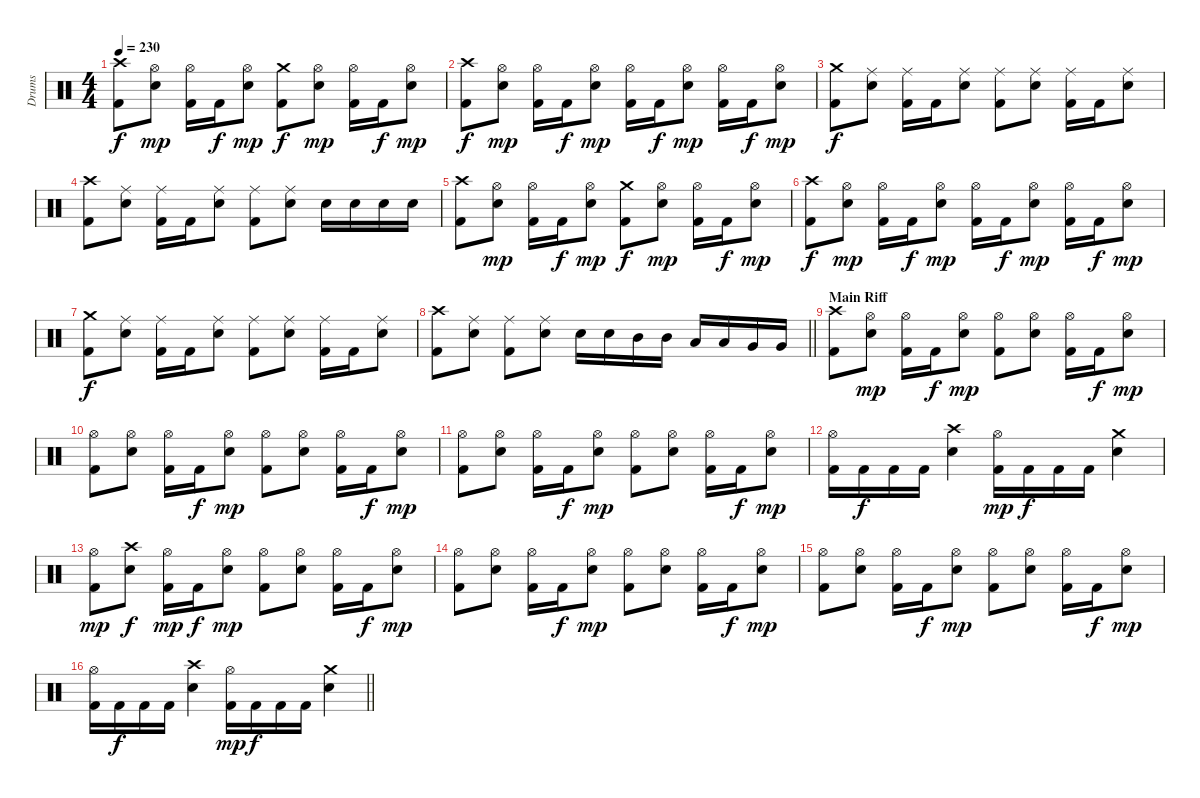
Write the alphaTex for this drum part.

\track ("Drums" "Drums") {instrument percussion}
\staff {score}
\articulation defaults
\ts (4 4)
\tempo 230
\clef neutral
\ks c
("Crash high (hit)" "Kick (hit) 2").8{dy f} ("Hi-Hat (open)" "Snare (hit) 2").8{dy mp} ("Hi-Hat (open)" "Kick (hit) 2").16 "Kick (hit) 2".16{dy f} ("Hi-Hat (open)" "Snare (hit) 2").8{dy mp} ("Crash medium (hit)" "Kick (hit) 2").8{dy f} ("Hi-Hat (open)" "Snare (hit) 2").8{dy mp} ("Hi-Hat (open)" "Kick (hit) 2").16 "Kick (hit) 2".16{dy f} ("Hi-Hat (open)" "Snare (hit) 2").8{dy mp} |
("Crash high (hit)" "Kick (hit) 2").8{dy f} ("Hi-Hat (open)" "Snare (hit) 2").8{dy mp} ("Hi-Hat (open)" "Kick (hit) 2").16 "Kick (hit) 2".16{dy f} ("Hi-Hat (open)" "Snare (hit) 2").8{dy mp} ("Hi-Hat (open)" "Kick (hit) 2").16 "Kick (hit) 2".16{dy f} ("Hi-Hat (open)" "Snare (hit) 2").8{dy mp} ("Hi-Hat (open)" "Kick (hit) 2").16 "Kick (hit) 2".16{dy f} ("Hi-Hat (open)" "Snare (hit) 2").8{dy mp} |
("Crash medium (hit)" "Kick (hit) 2").8{dy f} ("Ride (middle)" "Snare (hit) 2").8 ("Ride (middle)" "Kick (hit) 2").16 "Kick (hit) 2".16 ("Ride (middle)" "Snare (hit) 2").8 ("Ride (middle)" "Kick (hit) 2").8 ("Ride (middle)" "Snare (hit) 2").8 ("Ride (middle)" "Kick (hit) 2").16 "Kick (hit) 2".16 ("Ride (middle)" "Snare (hit) 2").8 |
("Crash high (hit)" "Kick (hit) 2").8 ("Ride (middle)" "Snare (hit) 2").8 ("Ride (middle)" "Kick (hit) 2").16 "Kick (hit) 2".16 ("Ride (middle)" "Snare (hit) 2").8 ("Ride (middle)" "Kick (hit) 2").8 ("Ride (middle)" "Snare (hit) 2").8 "Snare (hit) 2".16 "Snare (hit) 2".16 "Snare (hit) 2".16 "Snare (hit) 2".16 |
("Crash high (hit)" "Kick (hit) 2").8 ("Hi-Hat (open)" "Snare (hit) 2").8{dy mp} ("Hi-Hat (open)" "Kick (hit) 2").16 "Kick (hit) 2".16{dy f} ("Hi-Hat (open)" "Snare (hit) 2").8{dy mp} ("Crash medium (hit)" "Kick (hit) 2").8{dy f} ("Hi-Hat (open)" "Snare (hit) 2").8{dy mp} ("Hi-Hat (open)" "Kick (hit) 2").16 "Kick (hit) 2".16{dy f} ("Hi-Hat (open)" "Snare (hit) 2").8{dy mp} |
("Crash high (hit)" "Kick (hit) 2").8{dy f} ("Hi-Hat (open)" "Snare (hit) 2").8{dy mp} ("Hi-Hat (open)" "Kick (hit) 2").16 "Kick (hit) 2".16{dy f} ("Hi-Hat (open)" "Snare (hit) 2").8{dy mp} ("Hi-Hat (open)" "Kick (hit) 2").16 "Kick (hit) 2".16{dy f} ("Hi-Hat (open)" "Snare (hit) 2").8{dy mp} ("Hi-Hat (open)" "Kick (hit) 2").16 "Kick (hit) 2".16{dy f} ("Hi-Hat (open)" "Snare (hit) 2").8{dy mp} |
("Crash medium (hit)" "Kick (hit) 2").8{dy f} ("Ride (middle)" "Snare (hit) 2").8 ("Ride (middle)" "Kick (hit) 2").16 "Kick (hit) 2".16 ("Ride (middle)" "Snare (hit) 2").8 ("Ride (middle)" "Kick (hit) 2").8 ("Ride (middle)" "Snare (hit) 2").8 ("Ride (middle)" "Kick (hit) 2").16 "Kick (hit) 2".16 ("Ride (middle)" "Snare (hit) 2").8 |
\barLineRight lightlight
("Crash high (hit)" "Kick (hit) 2").8 ("Ride (middle)" "Snare (hit) 2").8 ("Ride (middle)" "Kick (hit) 2").8 ("Ride (middle)" "Snare (hit) 2").8 "Snare (hit) 2".16 "Snare (hit) 2".16 "Mid Tom (hit)".16 "Mid Tom (hit)".16 "Low Tom (hit)".16 "Low Tom (hit)".16 "Very Low Tom (hit)".16 "Very Low Tom (hit)".16 |
\section ("" "Main Riff")
("Crash high (hit)" "Kick (hit) 2").8 ("Hi-Hat (open)" "Snare (hit) 2").8{dy mp} ("Hi-Hat (open)" "Kick (hit) 2").16 "Kick (hit) 2".16{dy f} ("Hi-Hat (open)" "Snare (hit) 2").8{dy mp} ("Hi-Hat (open)" "Kick (hit) 2").8 ("Hi-Hat (open)" "Snare (hit) 2").8 ("Hi-Hat (open)" "Kick (hit) 2").16 "Kick (hit) 2".16{dy f} ("Hi-Hat (open)" "Snare (hit) 2").8{dy mp} |
("Hi-Hat (open)" "Kick (hit) 2").8 ("Hi-Hat (open)" "Snare (hit) 2").8 ("Hi-Hat (open)" "Kick (hit) 2").16 "Kick (hit) 2".16{dy f} ("Hi-Hat (open)" "Snare (hit) 2").8{dy mp} ("Hi-Hat (open)" "Kick (hit) 2").8 ("Hi-Hat (open)" "Snare (hit) 2").8 ("Hi-Hat (open)" "Kick (hit) 2").16 "Kick (hit) 2".16{dy f} ("Hi-Hat (open)" "Snare (hit) 2").8{dy mp} |
("Hi-Hat (open)" "Kick (hit) 2").8 ("Hi-Hat (open)" "Snare (hit) 2").8 ("Hi-Hat (open)" "Kick (hit) 2").16 "Kick (hit) 2".16{dy f} ("Hi-Hat (open)" "Snare (hit) 2").8{dy mp} ("Hi-Hat (open)" "Kick (hit) 2").8 ("Hi-Hat (open)" "Snare (hit) 2").8 ("Hi-Hat (open)" "Kick (hit) 2").16 "Kick (hit) 2".16{dy f} ("Hi-Hat (open)" "Snare (hit) 2").8{dy mp} |
("Hi-Hat (open)" "Kick (hit) 2").16 "Kick (hit) 2".16{dy f} "Kick (hit) 2".16 "Kick (hit) 2".16 ("Crash high (hit)" "Snare (hit) 2").4 ("Hi-Hat (open)" "Kick (hit) 2").16{dy mp} "Kick (hit) 2".16{dy f} "Kick (hit) 2".16 "Kick (hit) 2".16 ("Crash medium (hit)" "Snare (hit) 2").4 |
("Hi-Hat (open)" "Kick (hit) 2").8{dy mp} ("Crash high (hit)" "Snare (hit) 2").8{dy f} ("Hi-Hat (open)" "Kick (hit) 2").16{dy mp} "Kick (hit) 2".16{dy f} ("Hi-Hat (open)" "Snare (hit) 2").8{dy mp} ("Hi-Hat (open)" "Kick (hit) 2").8 ("Hi-Hat (open)" "Snare (hit) 2").8 ("Hi-Hat (open)" "Kick (hit) 2").16 "Kick (hit) 2".16{dy f} ("Hi-Hat (open)" "Snare (hit) 2").8{dy mp} |
("Hi-Hat (open)" "Kick (hit) 2").8 ("Hi-Hat (open)" "Snare (hit) 2").8 ("Hi-Hat (open)" "Kick (hit) 2").16 "Kick (hit) 2".16{dy f} ("Hi-Hat (open)" "Snare (hit) 2").8{dy mp} ("Hi-Hat (open)" "Kick (hit) 2").8 ("Hi-Hat (open)" "Snare (hit) 2").8 ("Hi-Hat (open)" "Kick (hit) 2").16 "Kick (hit) 2".16{dy f} ("Hi-Hat (open)" "Snare (hit) 2").8{dy mp} |
("Hi-Hat (open)" "Kick (hit) 2").8 ("Hi-Hat (open)" "Snare (hit) 2").8 ("Hi-Hat (open)" "Kick (hit) 2").16 "Kick (hit) 2".16{dy f} ("Hi-Hat (open)" "Snare (hit) 2").8{dy mp} ("Hi-Hat (open)" "Kick (hit) 2").8 ("Hi-Hat (open)" "Snare (hit) 2").8 ("Hi-Hat (open)" "Kick (hit) 2").16 "Kick (hit) 2".16{dy f} ("Hi-Hat (open)" "Snare (hit) 2").8{dy mp} |
\barLineRight lightlight
("Hi-Hat (open)" "Kick (hit) 2").16 "Kick (hit) 2".16{dy f} "Kick (hit) 2".16 "Kick (hit) 2".16 ("Crash high (hit)" "Snare (hit) 2").4 ("Hi-Hat (open)" "Kick (hit) 2").16{dy mp} "Kick (hit) 2".16{dy f} "Kick (hit) 2".16 "Kick (hit) 2".16 ("Crash medium (hit)" "Snare (hit) 2").4
